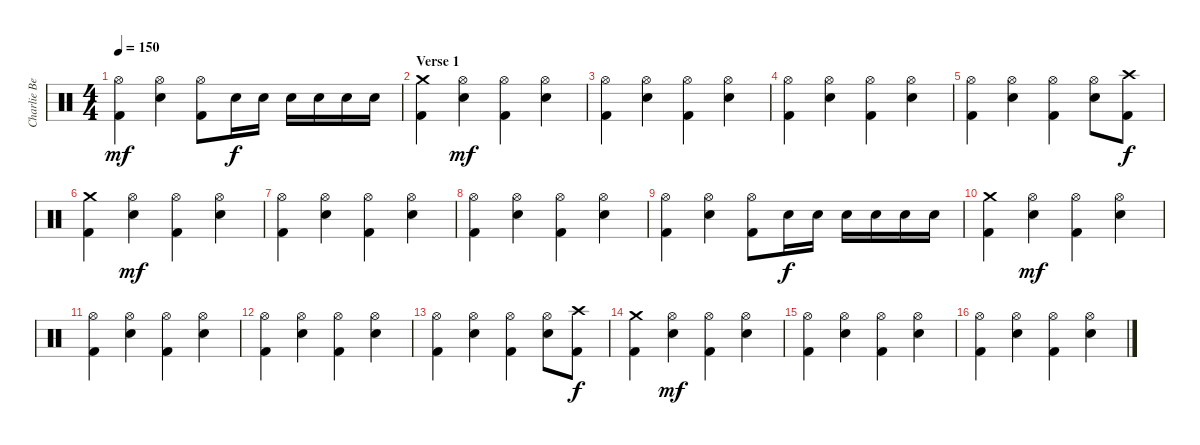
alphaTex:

\track ("Charlie Benante" "Charlie Be") {instrument percussion}
\staff {score}
\articulation defaults
\ts (4 4)
\tempo 150
\clef neutral
\ks c
("Kick (hit) 2" "Hi-Hat (open)").4{dy mf} ("Hi-Hat (open)" "Snare (hit) 2").4 ("Kick (hit) 2" "Hi-Hat (open)").8 "Snare (hit) 2".16{dy f} "Snare (hit) 2".16 "Snare (hit) 2".16 "Snare (hit) 2".16 "Snare (hit) 2".16 "Snare (hit) 2".16 |
\section ("" "Verse 1")
("Kick (hit) 2" "Crash medium (hit)").4 ("Hi-Hat (open)" "Snare (hit) 2").4{dy mf} ("Kick (hit) 2" "Hi-Hat (open)").4 ("Hi-Hat (open)" "Snare (hit) 2").4 |
("Kick (hit) 2" "Hi-Hat (open)").4 ("Hi-Hat (open)" "Snare (hit) 2").4 ("Kick (hit) 2" "Hi-Hat (open)").4 ("Hi-Hat (open)" "Snare (hit) 2").4 |
("Kick (hit) 2" "Hi-Hat (open)").4 ("Hi-Hat (open)" "Snare (hit) 2").4 ("Kick (hit) 2" "Hi-Hat (open)").4 ("Hi-Hat (open)" "Snare (hit) 2").4 |
("Kick (hit) 2" "Hi-Hat (open)").4 ("Hi-Hat (open)" "Snare (hit) 2").4 ("Kick (hit) 2" "Hi-Hat (open)").4 ("Hi-Hat (open)" "Snare (hit) 2").8 ("Kick (hit) 2" "Crash high (hit)").8{dy f} |
("Kick (hit) 2" "Crash medium (hit)").4 ("Hi-Hat (open)" "Snare (hit) 2").4{dy mf} ("Kick (hit) 2" "Hi-Hat (open)").4 ("Hi-Hat (open)" "Snare (hit) 2").4 |
("Kick (hit) 2" "Hi-Hat (open)").4 ("Hi-Hat (open)" "Snare (hit) 2").4 ("Kick (hit) 2" "Hi-Hat (open)").4 ("Hi-Hat (open)" "Snare (hit) 2").4 |
("Kick (hit) 2" "Hi-Hat (open)").4 ("Hi-Hat (open)" "Snare (hit) 2").4 ("Kick (hit) 2" "Hi-Hat (open)").4 ("Hi-Hat (open)" "Snare (hit) 2").4 |
("Kick (hit) 2" "Hi-Hat (open)").4 ("Hi-Hat (open)" "Snare (hit) 2").4 ("Kick (hit) 2" "Hi-Hat (open)").8 "Snare (hit) 2".16{dy f} "Snare (hit) 2".16 "Snare (hit) 2".16 "Snare (hit) 2".16 "Snare (hit) 2".16 "Snare (hit) 2".16 |
("Kick (hit) 2" "Crash medium (hit)").4 ("Hi-Hat (open)" "Snare (hit) 2").4{dy mf} ("Kick (hit) 2" "Hi-Hat (open)").4 ("Hi-Hat (open)" "Snare (hit) 2").4 |
("Kick (hit) 2" "Hi-Hat (open)").4 ("Hi-Hat (open)" "Snare (hit) 2").4 ("Kick (hit) 2" "Hi-Hat (open)").4 ("Hi-Hat (open)" "Snare (hit) 2").4 |
("Kick (hit) 2" "Hi-Hat (open)").4 ("Hi-Hat (open)" "Snare (hit) 2").4 ("Kick (hit) 2" "Hi-Hat (open)").4 ("Hi-Hat (open)" "Snare (hit) 2").4 |
("Kick (hit) 2" "Hi-Hat (open)").4 ("Hi-Hat (open)" "Snare (hit) 2").4 ("Kick (hit) 2" "Hi-Hat (open)").4 ("Hi-Hat (open)" "Snare (hit) 2").8 ("Kick (hit) 2" "Crash high (hit)").8{dy f} |
("Kick (hit) 2" "Crash medium (hit)").4 ("Hi-Hat (open)" "Snare (hit) 2").4{dy mf} ("Kick (hit) 2" "Hi-Hat (open)").4 ("Hi-Hat (open)" "Snare (hit) 2").4 |
("Kick (hit) 2" "Hi-Hat (open)").4 ("Hi-Hat (open)" "Snare (hit) 2").4 ("Kick (hit) 2" "Hi-Hat (open)").4 ("Hi-Hat (open)" "Snare (hit) 2").4 |
("Kick (hit) 2" "Hi-Hat (open)").4 ("Hi-Hat (open)" "Snare (hit) 2").4 ("Kick (hit) 2" "Hi-Hat (open)").4 ("Hi-Hat (open)" "Snare (hit) 2").4
